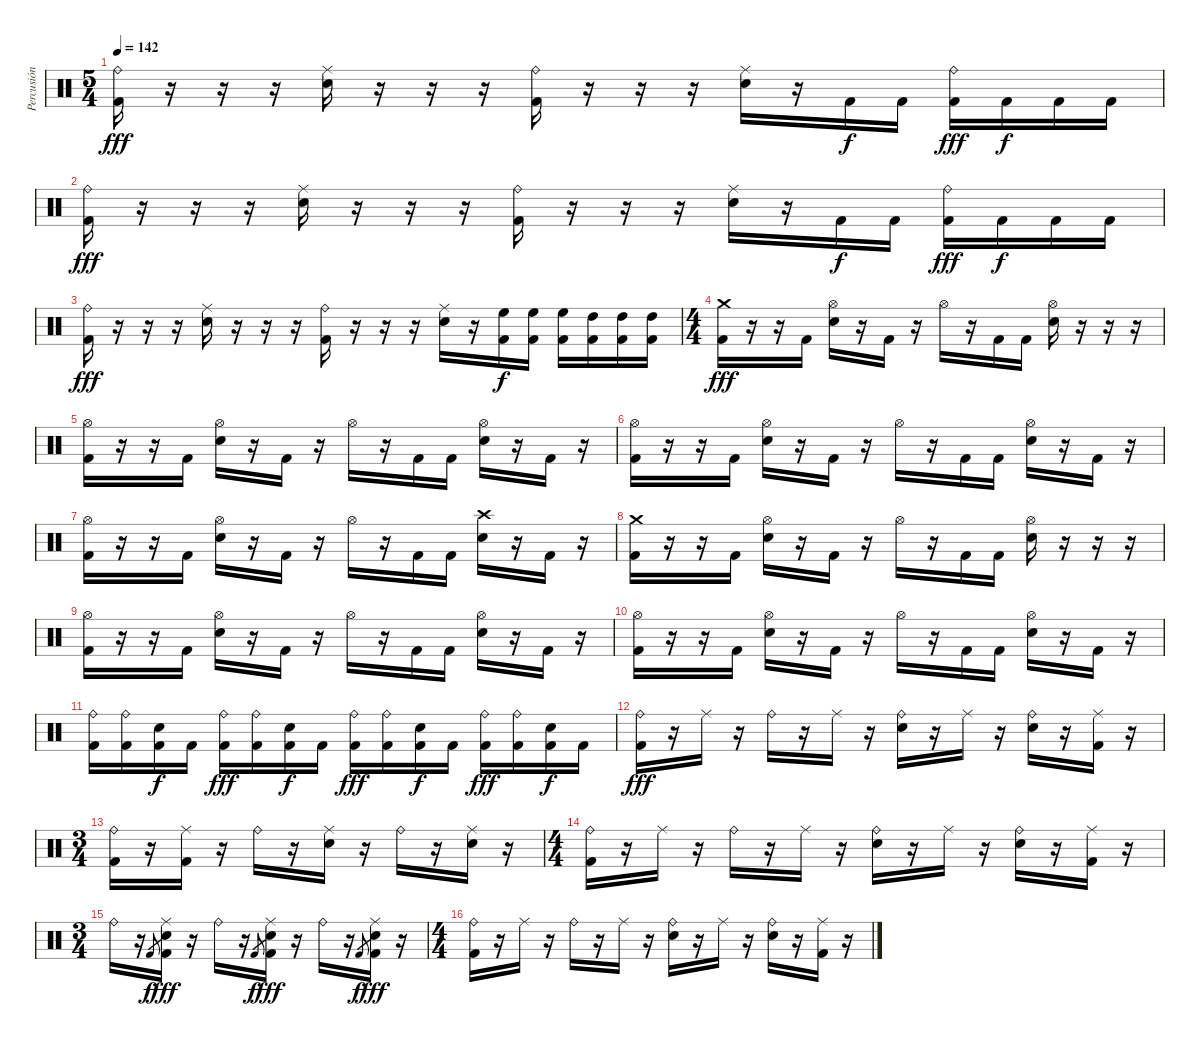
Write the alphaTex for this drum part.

\track ("Percusión" "Percusión") {instrument percussion}
\staff {score}
\articulation defaults
\ts (5 4)
\tempo 142
\clef neutral
\ks c
("Ride (bell)" "Kick (hit) 2").16{dy fff} r.16 r.16 r.16 ("Ride (middle)" "Electric Snare (hit)").16 r.16 r.16 r.16 ("Ride (bell)" "Kick (hit) 2").16 r.16 r.16 r.16 ("Ride (middle)" "Electric Snare (hit)").16 r.16 "Kick (hit) 2".16{dy f} "Kick (hit) 2".16 ("Ride (bell)" "Kick (hit) 2").16{dy fff} "Kick (hit) 2".16{dy f} "Kick (hit) 2".16 "Kick (hit) 2".16 |
("Ride (bell)" "Kick (hit) 2").16{dy fff} r.16 r.16 r.16 ("Ride (middle)" "Electric Snare (hit)").16 r.16 r.16 r.16 ("Ride (bell)" "Kick (hit) 2").16 r.16 r.16 r.16 ("Ride (middle)" "Electric Snare (hit)").16 r.16 "Kick (hit) 2".16{dy f} "Kick (hit) 2".16 ("Ride (bell)" "Kick (hit) 2").16{dy fff} "Kick (hit) 2".16{dy f} "Kick (hit) 2".16 "Kick (hit) 2".16 |
("Ride (bell)" "Kick (hit) 2").16{dy fff} r.16 r.16 r.16 ("Ride (middle)" "Electric Snare (hit)").16 r.16 r.16 r.16 ("Ride (bell)" "Kick (hit) 2").16 r.16 r.16 r.16 ("Ride (middle)" "Electric Snare (hit)").16 r.16 ("High Floor Tom (hit)" "Kick (hit) 2").16{dy f} ("High Floor Tom (hit)" "Kick (hit) 2").16 ("High Floor Tom (hit)" "Kick (hit) 2").16 ("High Tom (hit)" "Kick (hit) 2").16 ("High Tom (hit)" "Kick (hit) 2").16 ("High Tom (hit)" "Kick (hit) 2").16 |
\ts (4 4)
("Crash medium (hit)" "Kick (hit) 2").16{dy fff} r.16 r.16 "Kick (hit) 2".16 ("Hi-Hat (open)" "Electric Snare (hit)").16 r.16 "Kick (hit) 2".16 r.16 "Hi-Hat (open)".16 r.16 "Kick (hit) 2".16 "Kick (hit) 2".16 ("Hi-Hat (open)" "Electric Snare (hit)").16 r.16 r.16 r.16 |
("Hi-Hat (open)" "Kick (hit) 2").16 r.16 r.16 "Kick (hit) 2".16 ("Hi-Hat (open)" "Electric Snare (hit)").16 r.16 "Kick (hit) 2".16 r.16 "Hi-Hat (open)".16 r.16 "Kick (hit) 2".16 "Kick (hit) 2".16 ("Hi-Hat (open)" "Electric Snare (hit)").16 r.16 "Kick (hit) 2".16 r.16 |
("Hi-Hat (open)" "Kick (hit) 2").16 r.16 r.16 "Kick (hit) 2".16 ("Hi-Hat (open)" "Electric Snare (hit)").16 r.16 "Kick (hit) 2".16 r.16 "Hi-Hat (open)".16 r.16 "Kick (hit) 2".16 "Kick (hit) 2".16 ("Hi-Hat (open)" "Electric Snare (hit)").16 r.16 "Kick (hit) 2".16 r.16 |
("Hi-Hat (open)" "Kick (hit) 2").16 r.16 r.16 "Kick (hit) 2".16 ("Hi-Hat (open)" "Electric Snare (hit)").16 r.16 "Kick (hit) 2".16 r.16 "Hi-Hat (open)".16 r.16 "Kick (hit) 2".16 "Kick (hit) 2".16 ("Crash high (hit)" "Electric Snare (hit)").16 r.16 "Kick (hit) 2".16 r.16 |
("Crash medium (hit)" "Kick (hit) 2").16 r.16 r.16 "Kick (hit) 2".16 ("Hi-Hat (open)" "Electric Snare (hit)").16 r.16 "Kick (hit) 2".16 r.16 "Hi-Hat (open)".16 r.16 "Kick (hit) 2".16 "Kick (hit) 2".16 ("Hi-Hat (open)" "Electric Snare (hit)").16 r.16 r.16 r.16 |
("Hi-Hat (open)" "Kick (hit) 2").16 r.16 r.16 "Kick (hit) 2".16 ("Hi-Hat (open)" "Electric Snare (hit)").16 r.16 "Kick (hit) 2".16 r.16 "Hi-Hat (open)".16 r.16 "Kick (hit) 2".16 "Kick (hit) 2".16 ("Hi-Hat (open)" "Electric Snare (hit)").16 r.16 "Kick (hit) 2".16 r.16 |
("Hi-Hat (open)" "Kick (hit) 2").16 r.16 r.16 "Kick (hit) 2".16 ("Hi-Hat (open)" "Electric Snare (hit)").16 r.16 "Kick (hit) 2".16 r.16 "Hi-Hat (open)".16 r.16 "Kick (hit) 2".16 "Kick (hit) 2".16 ("Hi-Hat (open)" "Electric Snare (hit)").16 r.16 "Kick (hit) 2".16 r.16 |
("Ride (bell)" "Kick (hit) 2").16 ("Ride (bell)" "Kick (hit) 2").16 ("Electric Snare (hit)" "Kick (hit) 2").16{dy f} "Kick (hit) 2".16 ("Ride (bell)" "Kick (hit) 2").16{dy fff} ("Ride (bell)" "Kick (hit) 2").16 ("Electric Snare (hit)" "Kick (hit) 2").16{dy f} "Kick (hit) 2".16 ("Ride (bell)" "Kick (hit) 2").16{dy fff} ("Ride (bell)" "Kick (hit) 2").16 ("Electric Snare (hit)" "Kick (hit) 2").16{dy f} "Kick (hit) 2".16 ("Ride (bell)" "Kick (hit) 2").16{dy fff} ("Ride (bell)" "Kick (hit) 2").16 ("Electric Snare (hit)" "Kick (hit) 2").16{dy f} "Kick (hit) 2".16 |
("Ride (bell)" "Kick (hit) 2").16{dy fff} r.16 "Ride (middle)".16 r.16 "Ride (bell)".16 r.16 "Ride (middle)".16 r.16 ("Ride (bell)" "Electric Snare (hit)").16 r.16 "Ride (middle)".16 r.16 ("Ride (bell)" "Electric Snare (hit)").16 r.16 ("Ride (middle)" "Kick (hit) 2").16 r.16 |
\ts (3 4)
("Ride (bell)" "Kick (hit) 2").16 r.16 ("Ride (middle)" "Kick (hit) 2").16 r.16 "Ride (bell)".16 r.16 ("Ride (middle)" "Electric Snare (hit)").16 r.16 "Ride (bell)".16 r.16 ("Ride (middle)" "Electric Snare (hit)").16 r.16 |
\ts (4 4)
("Ride (bell)" "Kick (hit) 2").16 r.16 "Ride (middle)".16 r.16 "Ride (bell)".16 r.16 "Ride (middle)".16 r.16 ("Ride (bell)" "Electric Snare (hit)").16 r.16 "Ride (middle)".16 r.16 ("Ride (bell)" "Electric Snare (hit)").16 r.16 ("Ride (middle)" "Kick (hit) 2").16 r.16 |
\ts (3 4)
"Ride (bell)".16 r.16 "Kick (hit) 2".8{gr dy f} ("Ride (middle)" "Electric Snare (hit)" "Kick (hit) 2").16{dy fff} r.16 "Ride (bell)".16 r.16 "Kick (hit) 2".8{gr dy f} ("Ride (middle)" "Electric Snare (hit)" "Kick (hit) 2").16{dy fff} r.16 "Ride (bell)".16 r.16 "Kick (hit) 2".8{gr dy f} ("Ride (middle)" "Electric Snare (hit)" "Kick (hit) 2").16{dy fff} r.16 |
\ts (4 4)
("Ride (bell)" "Kick (hit) 2").16 r.16 "Ride (middle)".16 r.16 "Ride (bell)".16 r.16 "Ride (middle)".16 r.16 ("Ride (bell)" "Electric Snare (hit)").16 r.16 "Ride (middle)".16 r.16 ("Ride (bell)" "Electric Snare (hit)").16 r.16 ("Ride (middle)" "Kick (hit) 2").16 r.16
